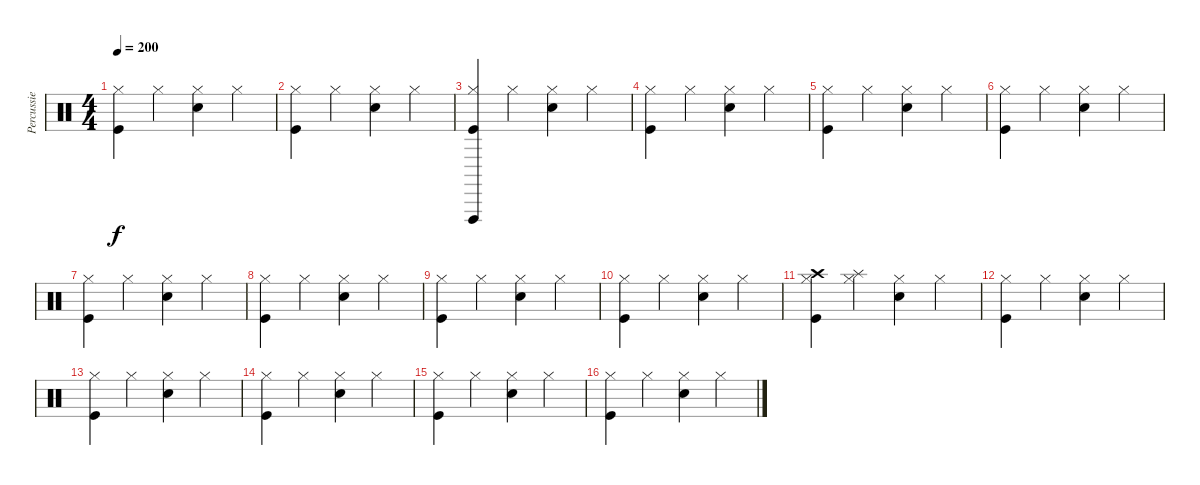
\track ("Percussie" "Percussie") {instrument percussion}
\staff {score}
\articulation defaults
\ts (4 4)
\tempo 200
\clef neutral
\ks c
("Hi-Hat (closed)" "Kick (hit)").4{dy f} "Hi-Hat (closed)".4 ("Electric Snare (hit)" "Hi-Hat (closed)").4 "Hi-Hat (closed)".4 |
("Hi-Hat (closed)" "Kick (hit)").4 "Hi-Hat (closed)".4 ("Electric Snare (hit)" "Hi-Hat (closed)").4 "Hi-Hat (closed)".4 |
("Vibraslap (hit)" "Hi-Hat (closed)" "Kick (hit)").4 "Hi-Hat (closed)".4 ("Electric Snare (hit)" "Hi-Hat (closed)").4 "Hi-Hat (closed)".4 |
("Hi-Hat (closed)" "Kick (hit)").4 "Hi-Hat (closed)".4 ("Electric Snare (hit)" "Hi-Hat (closed)").4 "Hi-Hat (closed)".4 |
("Hi-Hat (closed)" "Kick (hit)").4 "Hi-Hat (closed)".4 ("Electric Snare (hit)" "Hi-Hat (closed)").4 "Hi-Hat (closed)".4 |
("Hi-Hat (closed)" "Kick (hit)").4 "Hi-Hat (closed)".4 ("Electric Snare (hit)" "Hi-Hat (closed)").4 "Hi-Hat (closed)".4 |
("Hi-Hat (closed)" "Kick (hit)").4 "Hi-Hat (closed)".4 ("Electric Snare (hit)" "Hi-Hat (closed)").4 "Hi-Hat (closed)".4 |
("Hi-Hat (closed)" "Kick (hit)").4 "Hi-Hat (closed)".4 ("Electric Snare (hit)" "Hi-Hat (closed)").4 "Hi-Hat (closed)".4 |
("Hi-Hat (closed)" "Kick (hit)").4 "Hi-Hat (closed)".4 ("Electric Snare (hit)" "Hi-Hat (closed)").4 "Hi-Hat (closed)".4 |
("Hi-Hat (closed)" "Kick (hit)").4 "Hi-Hat (closed)".4 ("Electric Snare (hit)" "Hi-Hat (closed)").4 "Hi-Hat (closed)".4 |
("Crash high (hit)" "Hi-Hat (closed)" "Kick (hit)").4 ("Splash (hit)" "Hi-Hat (closed)").4 ("Electric Snare (hit)" "Hi-Hat (closed)").4 "Hi-Hat (closed)".4 |
("Hi-Hat (closed)" "Kick (hit)").4 "Hi-Hat (closed)".4 ("Electric Snare (hit)" "Hi-Hat (closed)").4 "Hi-Hat (closed)".4 |
("Hi-Hat (closed)" "Kick (hit)").4 "Hi-Hat (closed)".4 ("Electric Snare (hit)" "Hi-Hat (closed)").4 "Hi-Hat (closed)".4 |
("Hi-Hat (closed)" "Kick (hit)").4 "Hi-Hat (closed)".4 ("Electric Snare (hit)" "Hi-Hat (closed)").4 "Hi-Hat (closed)".4 |
("Hi-Hat (closed)" "Kick (hit)").4 "Hi-Hat (closed)".4 ("Electric Snare (hit)" "Hi-Hat (closed)").4 "Hi-Hat (closed)".4 |
("Hi-Hat (closed)" "Kick (hit)").4 "Hi-Hat (closed)".4 ("Electric Snare (hit)" "Hi-Hat (closed)").4 "Hi-Hat (closed)".4
